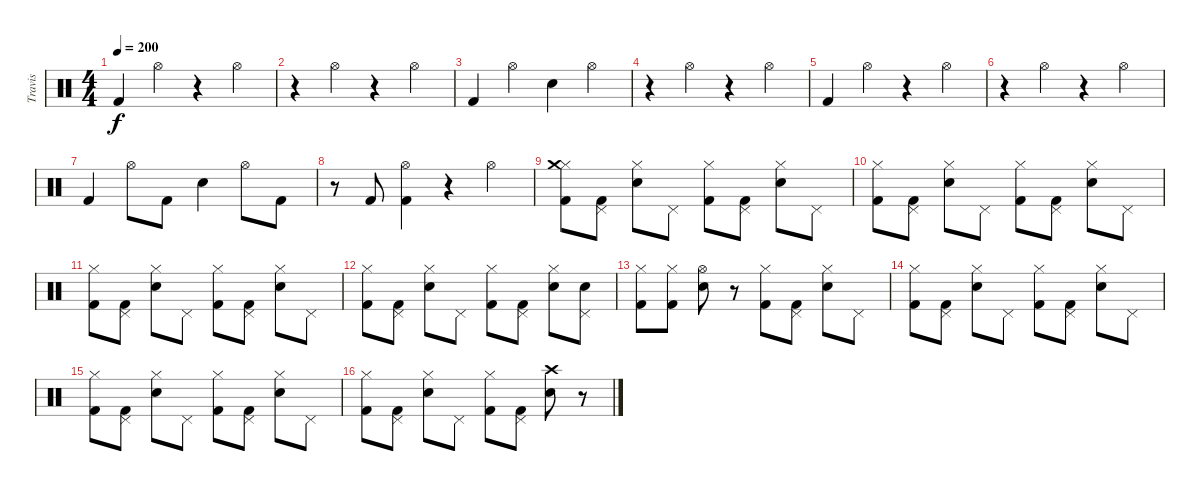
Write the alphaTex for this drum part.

\track ("Travis" "Travis") {instrument percussion}
\staff {score}
\articulation defaults
\ts (4 4)
\tempo 200
\clef neutral
\ks c "Kick (hit) 2".4{dy f} "Hi-Hat (open)".4
r.4 "Hi-Hat (open)".4 |
r.4 "Hi-Hat (open)".4 r.4 "Hi-Hat (open)".4 |
"Kick (hit) 2".4 "Hi-Hat (open)".4 "Snare (hit) 2".4 "Hi-Hat (open)".4 |
r.4 "Hi-Hat (open)".4 r.4 "Hi-Hat (open)".4 |
"Kick (hit) 2".4 "Hi-Hat (open)".4 r.4 "Hi-Hat (open)".4 |
r.4 "Hi-Hat (open)".4 r.4 "Hi-Hat (open)".4 |
"Kick (hit) 2".4 "Hi-Hat (open)".8 "Kick (hit) 2".8 "Snare (hit) 2".4 "Hi-Hat (open)".8 "Kick (hit) 2".8 |
r.8 "Kick (hit) 2".8 ("Kick (hit) 2" "Hi-Hat (open)").4 r.4 "Hi-Hat (open)".4 |
("Kick (hit) 2" "Hi-Hat (closed)" "Crash medium (hit)").8 ("Kick (hit) 2" "Pedal Hi-Hat (hit)").8 ("Snare (hit) 2" "Hi-Hat (closed)").8 "Pedal Hi-Hat (hit)".8 ("Kick (hit) 2" "Hi-Hat (closed)").8 ("Kick (hit) 2" "Pedal Hi-Hat (hit)").8 ("Snare (hit) 2" "Hi-Hat (closed)").8 "Pedal Hi-Hat (hit)".8 |
("Kick (hit) 2" "Hi-Hat (closed)").8 ("Kick (hit) 2" "Pedal Hi-Hat (hit)").8 ("Snare (hit) 2" "Hi-Hat (closed)").8 "Pedal Hi-Hat (hit)".8 ("Kick (hit) 2" "Hi-Hat (closed)").8 ("Kick (hit) 2" "Pedal Hi-Hat (hit)").8 ("Snare (hit) 2" "Hi-Hat (closed)").8 "Pedal Hi-Hat (hit)".8 |
("Kick (hit) 2" "Hi-Hat (closed)").8 ("Kick (hit) 2" "Pedal Hi-Hat (hit)").8 ("Snare (hit) 2" "Hi-Hat (closed)").8 "Pedal Hi-Hat (hit)".8 ("Kick (hit) 2" "Hi-Hat (closed)").8 ("Kick (hit) 2" "Pedal Hi-Hat (hit)").8 ("Snare (hit) 2" "Hi-Hat (closed)").8 "Pedal Hi-Hat (hit)".8 |
("Kick (hit) 2" "Hi-Hat (closed)").8 ("Kick (hit) 2" "Pedal Hi-Hat (hit)").8 ("Snare (hit) 2" "Hi-Hat (closed)").8 "Pedal Hi-Hat (hit)".8 ("Kick (hit) 2" "Hi-Hat (closed)").8 ("Kick (hit) 2" "Pedal Hi-Hat (hit)").8 ("Snare (hit) 2" "Hi-Hat (closed)").8 ("Snare (hit) 2" "Pedal Hi-Hat (hit)").8 |
("Kick (hit) 2" "Hi-Hat (closed)").8 ("Kick (hit) 2" "Hi-Hat (closed)").8 ("Snare (hit) 2" "Hi-Hat (open)").8 r.8 ("Kick (hit) 2" "Hi-Hat (closed)").8 ("Kick (hit) 2" "Pedal Hi-Hat (hit)").8 ("Snare (hit) 2" "Hi-Hat (closed)").8 "Pedal Hi-Hat (hit)".8 |
("Kick (hit) 2" "Hi-Hat (closed)").8 ("Kick (hit) 2" "Pedal Hi-Hat (hit)").8 ("Snare (hit) 2" "Hi-Hat (closed)").8 "Pedal Hi-Hat (hit)".8 ("Kick (hit) 2" "Hi-Hat (closed)").8 ("Kick (hit) 2" "Pedal Hi-Hat (hit)").8 ("Snare (hit) 2" "Hi-Hat (closed)").8 "Pedal Hi-Hat (hit)".8 |
("Kick (hit) 2" "Hi-Hat (closed)").8 ("Kick (hit) 2" "Pedal Hi-Hat (hit)").8 ("Snare (hit) 2" "Hi-Hat (closed)").8 "Pedal Hi-Hat (hit)".8 ("Kick (hit) 2" "Hi-Hat (closed)").8 ("Kick (hit) 2" "Pedal Hi-Hat (hit)").8 ("Snare (hit) 2" "Hi-Hat (closed)").8 "Pedal Hi-Hat (hit)".8 |
("Kick (hit) 2" "Hi-Hat (closed)").8 ("Kick (hit) 2" "Pedal Hi-Hat (hit)").8 ("Snare (hit) 2" "Hi-Hat (closed)").8 "Pedal Hi-Hat (hit)".8 ("Kick (hit) 2" "Hi-Hat (closed)").8 ("Kick (hit) 2" "Pedal Hi-Hat (hit)").8 ("Snare (hit) 2" "Crash high (hit)").8 r.8
